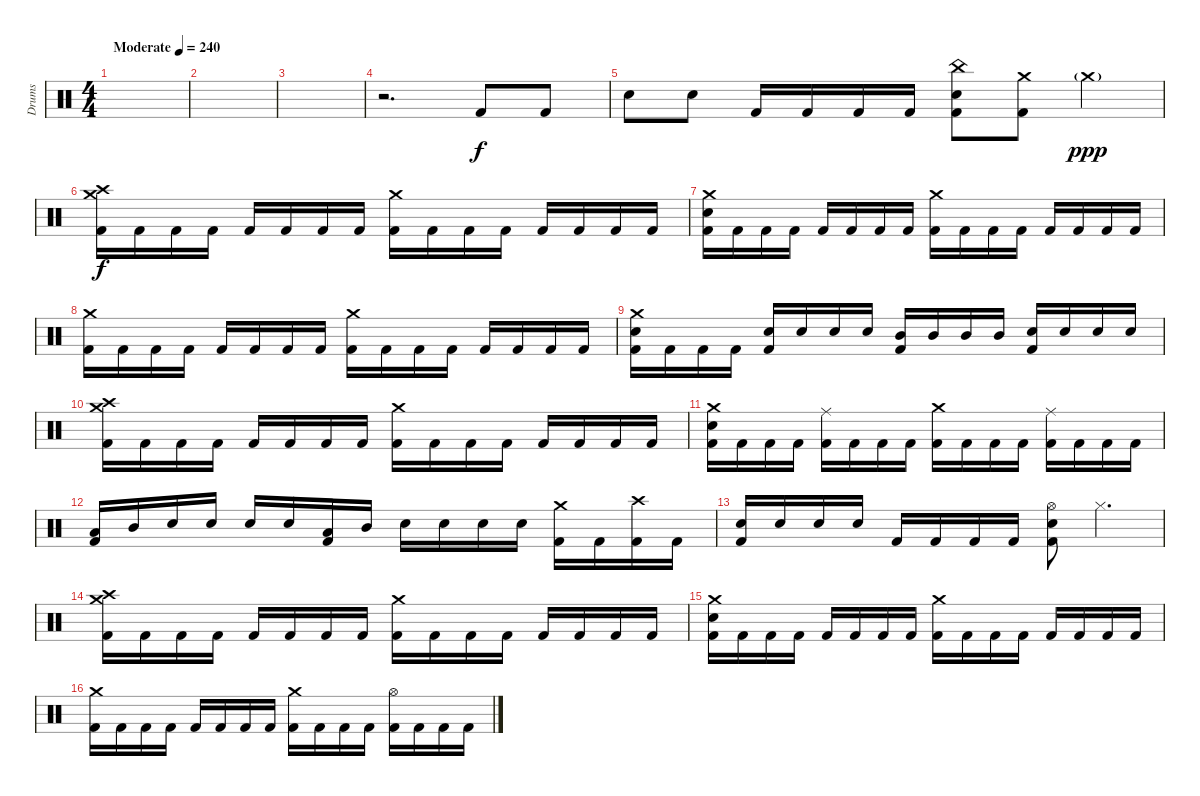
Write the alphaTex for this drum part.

\track ("Drums" "Drums") {instrument percussion}
\staff
\articulation defaults
\ts (4 4)
\tempo (240 "Moderate")
\clef neutral
\ks c
|
|
|
r.2{d} "Kick (hit) 2".8 "Kick (hit) 2".8 |
"Electric Snare (hit)".8 "Electric Snare (hit)".8 "Kick (hit) 2".16 "Kick (hit) 2".16 "Kick (hit) 2".16 "Kick (hit) 2".16 ("China (hit)" "Electric Snare (hit)" "Kick (hit) 2").8 ("Crash medium (hit)" "Kick (hit) 2").8 "Crash medium (hit)"{g}.4{dy ppp} |
("Crash medium (hit)" "Crash high (hit)" "Kick (hit) 2").16{dy f} "Kick (hit) 2".16 "Kick (hit) 2".16 "Kick (hit) 2".16 "Kick (hit) 2".16 "Kick (hit) 2".16 "Kick (hit) 2".16 "Kick (hit) 2".16 ("Crash medium (hit)" "Kick (hit) 2").16 "Kick (hit) 2".16 "Kick (hit) 2".16 "Kick (hit) 2".16 "Kick (hit) 2".16 "Kick (hit) 2".16 "Kick (hit) 2".16 "Kick (hit) 2".16 |
("Crash medium (hit)" "Electric Snare (hit)" "Kick (hit) 2").16 "Kick (hit) 2".16 "Kick (hit) 2".16 "Kick (hit) 2".16 "Kick (hit) 2".16 "Kick (hit) 2".16 "Kick (hit) 2".16 "Kick (hit) 2".16 ("Crash medium (hit)" "Kick (hit) 2").16 "Kick (hit) 2".16 "Kick (hit) 2".16 "Kick (hit) 2".16 "Kick (hit) 2".16 "Kick (hit) 2".16 "Kick (hit) 2".16 "Kick (hit) 2".16 |
("Crash medium (hit)" "Kick (hit) 2").16 "Kick (hit) 2".16 "Kick (hit) 2".16 "Kick (hit) 2".16 "Kick (hit) 2".16 "Kick (hit) 2".16 "Kick (hit) 2".16 "Kick (hit) 2".16 ("Crash medium (hit)" "Kick (hit) 2").16 "Kick (hit) 2".16 "Kick (hit) 2".16 "Kick (hit) 2".16 "Kick (hit) 2".16 "Kick (hit) 2".16 "Kick (hit) 2".16 "Kick (hit) 2".16 |
("Crash medium (hit)" "Electric Snare (hit)" "Kick (hit) 2").16 "Kick (hit) 2".16 "Kick (hit) 2".16 "Kick (hit) 2".16 ("Electric Snare (hit)" "Kick (hit) 2").16 "Electric Snare (hit)".16 "Electric Snare (hit)".16 "Electric Snare (hit)".16 ("Mid Tom (hit)" "Kick (hit) 2").16 "Mid Tom (hit)".16 "Mid Tom (hit)".16 "Mid Tom (hit)".16 ("Electric Snare (hit)" "Kick (hit) 2").16 "Electric Snare (hit)".16 "Electric Snare (hit)".16 "Electric Snare (hit)".16 |
("Crash medium (hit)" "Crash high (hit)" "Kick (hit) 2").16 "Kick (hit) 2".16 "Kick (hit) 2".16 "Kick (hit) 2".16 "Kick (hit) 2".16 "Kick (hit) 2".16 "Kick (hit) 2".16 "Kick (hit) 2".16 ("Crash medium (hit)" "Kick (hit) 2").16 "Kick (hit) 2".16 "Kick (hit) 2".16 "Kick (hit) 2".16 "Kick (hit) 2".16 "Kick (hit) 2".16 "Kick (hit) 2".16 "Kick (hit) 2".16 |
("Crash medium (hit)" "Electric Snare (hit)" "Kick (hit) 2").16 "Kick (hit) 2".16 "Kick (hit) 2".16 "Kick (hit) 2".16 ("Ride (middle)" "Kick (hit) 2").16 "Kick (hit) 2".16 "Kick (hit) 2".16 "Kick (hit) 2".16 ("Crash medium (hit)" "Kick (hit) 2").16 "Kick (hit) 2".16 "Kick (hit) 2".16 "Kick (hit) 2".16 ("Ride (middle)" "Kick (hit) 2").16 "Kick (hit) 2".16 "Kick (hit) 2".16 "Kick (hit) 2".16 |
("Low Tom (hit)" "Kick (hit) 2").16 "Mid Tom (hit)".16 "Electric Snare (hit)".16 "Electric Snare (hit)".16 "Electric Snare (hit)".16 "Electric Snare (hit)".16 ("Low Tom (hit)" "Kick (hit) 2").16 "Mid Tom (hit)".16 "Electric Snare (hit)".16 "Electric Snare (hit)".16 "Electric Snare (hit)".16 "Electric Snare (hit)".16 ("Crash medium (hit)" "Kick (hit) 2").16 "Kick (hit) 2".16 ("Crash high (hit)" "Kick (hit) 2").16 "Kick (hit) 2".16 |
("Electric Snare (hit)" "Kick (hit) 2").16 "Electric Snare (hit)".16 "Electric Snare (hit)".16 "Electric Snare (hit)".16 "Kick (hit) 2".16 "Kick (hit) 2".16 "Kick (hit) 2".16 "Kick (hit) 2".16 ("Hi-Hat (open)" "Electric Snare (hit)" "Kick (hit) 2").8 "Hi-Hat (closed)".4{d} |
("Crash medium (hit)" "Crash high (hit)" "Kick (hit) 2").16 "Kick (hit) 2".16 "Kick (hit) 2".16 "Kick (hit) 2".16 "Kick (hit) 2".16 "Kick (hit) 2".16 "Kick (hit) 2".16 "Kick (hit) 2".16 ("Crash medium (hit)" "Kick (hit) 2").16 "Kick (hit) 2".16 "Kick (hit) 2".16 "Kick (hit) 2".16 "Kick (hit) 2".16 "Kick (hit) 2".16 "Kick (hit) 2".16 "Kick (hit) 2".16 |
("Crash medium (hit)" "Electric Snare (hit)" "Kick (hit) 2").16 "Kick (hit) 2".16 "Kick (hit) 2".16 "Kick (hit) 2".16 "Kick (hit) 2".16 "Kick (hit) 2".16 "Kick (hit) 2".16 "Kick (hit) 2".16 ("Crash medium (hit)" "Kick (hit) 2").16 "Kick (hit) 2".16 "Kick (hit) 2".16 "Kick (hit) 2".16 "Kick (hit) 2".16 "Kick (hit) 2".16 "Kick (hit) 2".16 "Kick (hit) 2".16 |
("Crash medium (hit)" "Kick (hit) 2").16 "Kick (hit) 2".16 "Kick (hit) 2".16 "Kick (hit) 2".16 "Kick (hit) 2".16 "Kick (hit) 2".16 "Kick (hit) 2".16 "Kick (hit) 2".16 ("Crash medium (hit)" "Kick (hit) 2").16 "Kick (hit) 2".16 "Kick (hit) 2".16 "Kick (hit) 2".16 ("Hi-Hat (open)" "Kick (hit) 2").16 "Kick (hit) 2".16 "Kick (hit) 2".16 "Kick (hit) 2".16
